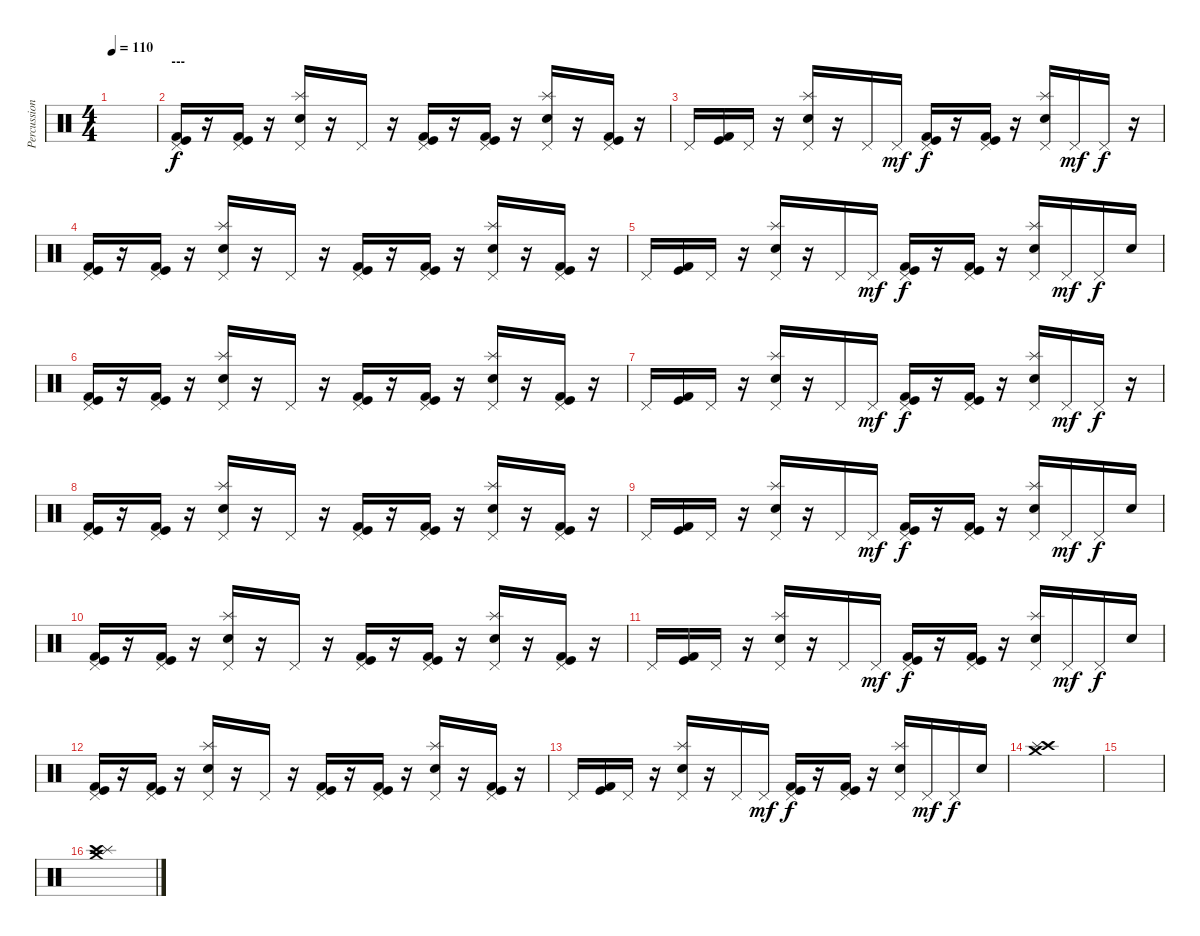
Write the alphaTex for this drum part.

\track ("Percussion" "Percussion") {instrument percussion}
\staff {score}
\articulation defaults
\ts (4 4)
\tempo 110
\clef neutral
\ks c
|
\section ("" "---")
("Pedal Hi-Hat (hit)" "Kick (hit) 2" "Kick (hit)").16{dy f} r.16 ("Pedal Hi-Hat (hit)" "Kick (hit)" "Kick (hit) 2").16 r.16 ("Pedal Hi-Hat (hit)" "Splash (hit)" "Snare (hit) 2").16 r.16 "Pedal Hi-Hat (hit)".16 r.16 ("Pedal Hi-Hat (hit)" "Kick (hit)" "Kick (hit) 2").16 r.16 ("Pedal Hi-Hat (hit)" "Kick (hit) 2" "Kick (hit)").16 r.16 ("Pedal Hi-Hat (hit)" "Splash (hit)" "Snare (hit) 2").16 r.16 ("Pedal Hi-Hat (hit)" "Kick (hit)" "Kick (hit) 2").16 r.16 |
"Pedal Hi-Hat (hit)".16 ("Kick (hit)" "Kick (hit) 2").16 "Pedal Hi-Hat (hit)".16 r.16 ("Pedal Hi-Hat (hit)" "Splash (hit)" "Snare (hit) 2").16 r.16 "Pedal Hi-Hat (hit)".16 "Pedal Hi-Hat (hit)".16{dy mf} ("Pedal Hi-Hat (hit)" "Kick (hit) 2" "Kick (hit)").16{dy f} r.16 ("Pedal Hi-Hat (hit)" "Kick (hit)" "Kick (hit) 2").16 r.16 ("Pedal Hi-Hat (hit)" "Splash (hit)" "Snare (hit) 2").16 "Pedal Hi-Hat (hit)".16{dy mf} "Pedal Hi-Hat (hit)".16{dy f} r.16 |
("Pedal Hi-Hat (hit)" "Kick (hit) 2" "Kick (hit)").16 r.16 ("Pedal Hi-Hat (hit)" "Kick (hit)" "Kick (hit) 2").16 r.16 ("Pedal Hi-Hat (hit)" "Splash (hit)" "Snare (hit) 2").16 r.16 "Pedal Hi-Hat (hit)".16 r.16 ("Pedal Hi-Hat (hit)" "Kick (hit)" "Kick (hit) 2").16 r.16 ("Pedal Hi-Hat (hit)" "Kick (hit) 2" "Kick (hit)").16 r.16 ("Pedal Hi-Hat (hit)" "Splash (hit)" "Snare (hit) 2").16 r.16 ("Pedal Hi-Hat (hit)" "Kick (hit)" "Kick (hit) 2").16 r.16 |
"Pedal Hi-Hat (hit)".16 ("Kick (hit)" "Kick (hit) 2").16 "Pedal Hi-Hat (hit)".16 r.16 ("Pedal Hi-Hat (hit)" "Splash (hit)" "Snare (hit) 2").16 r.16 "Pedal Hi-Hat (hit)".16 "Pedal Hi-Hat (hit)".16{dy mf} ("Pedal Hi-Hat (hit)" "Kick (hit) 2" "Kick (hit)").16{dy f} r.16 ("Pedal Hi-Hat (hit)" "Kick (hit)" "Kick (hit) 2").16 r.16 ("Pedal Hi-Hat (hit)" "Splash (hit)" "Snare (hit) 2").16 "Pedal Hi-Hat (hit)".16{dy mf} "Pedal Hi-Hat (hit)".16{dy f} "Snare (hit) 2".16 |
("Pedal Hi-Hat (hit)" "Kick (hit) 2" "Kick (hit)").16 r.16 ("Pedal Hi-Hat (hit)" "Kick (hit)" "Kick (hit) 2").16 r.16 ("Pedal Hi-Hat (hit)" "Splash (hit)" "Snare (hit) 2").16 r.16 "Pedal Hi-Hat (hit)".16 r.16 ("Pedal Hi-Hat (hit)" "Kick (hit)" "Kick (hit) 2").16 r.16 ("Pedal Hi-Hat (hit)" "Kick (hit) 2" "Kick (hit)").16 r.16 ("Pedal Hi-Hat (hit)" "Splash (hit)" "Snare (hit) 2").16 r.16 ("Pedal Hi-Hat (hit)" "Kick (hit)" "Kick (hit) 2").16 r.16 |
"Pedal Hi-Hat (hit)".16 ("Kick (hit)" "Kick (hit) 2").16 "Pedal Hi-Hat (hit)".16 r.16 ("Pedal Hi-Hat (hit)" "Splash (hit)" "Snare (hit) 2").16 r.16 "Pedal Hi-Hat (hit)".16 "Pedal Hi-Hat (hit)".16{dy mf} ("Pedal Hi-Hat (hit)" "Kick (hit) 2" "Kick (hit)").16{dy f} r.16 ("Pedal Hi-Hat (hit)" "Kick (hit)" "Kick (hit) 2").16 r.16 ("Pedal Hi-Hat (hit)" "Splash (hit)" "Snare (hit) 2").16 "Pedal Hi-Hat (hit)".16{dy mf} "Pedal Hi-Hat (hit)".16{dy f} r.16 |
("Pedal Hi-Hat (hit)" "Kick (hit) 2" "Kick (hit)").16 r.16 ("Pedal Hi-Hat (hit)" "Kick (hit)" "Kick (hit) 2").16 r.16 ("Pedal Hi-Hat (hit)" "Splash (hit)" "Snare (hit) 2").16 r.16 "Pedal Hi-Hat (hit)".16 r.16 ("Pedal Hi-Hat (hit)" "Kick (hit)" "Kick (hit) 2").16 r.16 ("Pedal Hi-Hat (hit)" "Kick (hit) 2" "Kick (hit)").16 r.16 ("Pedal Hi-Hat (hit)" "Splash (hit)" "Snare (hit) 2").16 r.16 ("Pedal Hi-Hat (hit)" "Kick (hit)" "Kick (hit) 2").16 r.16 |
"Pedal Hi-Hat (hit)".16 ("Kick (hit)" "Kick (hit) 2").16 "Pedal Hi-Hat (hit)".16 r.16 ("Pedal Hi-Hat (hit)" "Splash (hit)" "Snare (hit) 2").16 r.16 "Pedal Hi-Hat (hit)".16 "Pedal Hi-Hat (hit)".16{dy mf} ("Pedal Hi-Hat (hit)" "Kick (hit) 2" "Kick (hit)").16{dy f} r.16 ("Pedal Hi-Hat (hit)" "Kick (hit)" "Kick (hit) 2").16 r.16 ("Pedal Hi-Hat (hit)" "Splash (hit)" "Snare (hit) 2").16 "Pedal Hi-Hat (hit)".16{dy mf} "Pedal Hi-Hat (hit)".16{dy f} "Snare (hit) 2".16 |
("Pedal Hi-Hat (hit)" "Kick (hit) 2" "Kick (hit)").16 r.16 ("Pedal Hi-Hat (hit)" "Kick (hit)" "Kick (hit) 2").16 r.16 ("Pedal Hi-Hat (hit)" "Splash (hit)" "Snare (hit) 2").16 r.16 "Pedal Hi-Hat (hit)".16 r.16 ("Pedal Hi-Hat (hit)" "Kick (hit)" "Kick (hit) 2").16 r.16 ("Pedal Hi-Hat (hit)" "Kick (hit) 2" "Kick (hit)").16 r.16 ("Pedal Hi-Hat (hit)" "Splash (hit)" "Snare (hit) 2").16 r.16 ("Pedal Hi-Hat (hit)" "Kick (hit)" "Kick (hit) 2").16 r.16 |
"Pedal Hi-Hat (hit)".16 ("Kick (hit)" "Kick (hit) 2").16 "Pedal Hi-Hat (hit)".16 r.16 ("Pedal Hi-Hat (hit)" "Splash (hit)" "Snare (hit) 2").16 r.16 "Pedal Hi-Hat (hit)".16 "Pedal Hi-Hat (hit)".16{dy mf} ("Pedal Hi-Hat (hit)" "Kick (hit) 2" "Kick (hit)").16{dy f} r.16 ("Pedal Hi-Hat (hit)" "Kick (hit)" "Kick (hit) 2").16 r.16 ("Pedal Hi-Hat (hit)" "Splash (hit)" "Snare (hit) 2").16 "Pedal Hi-Hat (hit)".16{dy mf} "Pedal Hi-Hat (hit)".16{dy f} "Snare (hit) 2".16 |
("Pedal Hi-Hat (hit)" "Kick (hit) 2" "Kick (hit)").16 r.16 ("Pedal Hi-Hat (hit)" "Kick (hit)" "Kick (hit) 2").16 r.16 ("Pedal Hi-Hat (hit)" "Splash (hit)" "Snare (hit) 2").16 r.16 "Pedal Hi-Hat (hit)".16 r.16 ("Pedal Hi-Hat (hit)" "Kick (hit)" "Kick (hit) 2").16 r.16 ("Pedal Hi-Hat (hit)" "Kick (hit) 2" "Kick (hit)").16 r.16 ("Pedal Hi-Hat (hit)" "Splash (hit)" "Snare (hit) 2").16 r.16 ("Pedal Hi-Hat (hit)" "Kick (hit)" "Kick (hit) 2").16 r.16 |
"Pedal Hi-Hat (hit)".16 ("Kick (hit)" "Kick (hit) 2").16 "Pedal Hi-Hat (hit)".16 r.16 ("Pedal Hi-Hat (hit)" "Splash (hit)" "Snare (hit) 2").16 r.16 "Pedal Hi-Hat (hit)".16 "Pedal Hi-Hat (hit)".16{dy mf} ("Pedal Hi-Hat (hit)" "Kick (hit) 2" "Kick (hit)").16{dy f} r.16 ("Pedal Hi-Hat (hit)" "Kick (hit)" "Kick (hit) 2").16 r.16 ("Pedal Hi-Hat (hit)" "Splash (hit)" "Snare (hit) 2").16 "Pedal Hi-Hat (hit)".16{dy mf} "Pedal Hi-Hat (hit)".16{dy f} "Snare (hit) 2".16 |
("Crash medium (hit)" "Crash high (hit)" "Splash (hit)").1 |
|
("Crash medium (hit)" "Splash (hit)" "Crash high (hit)").1
